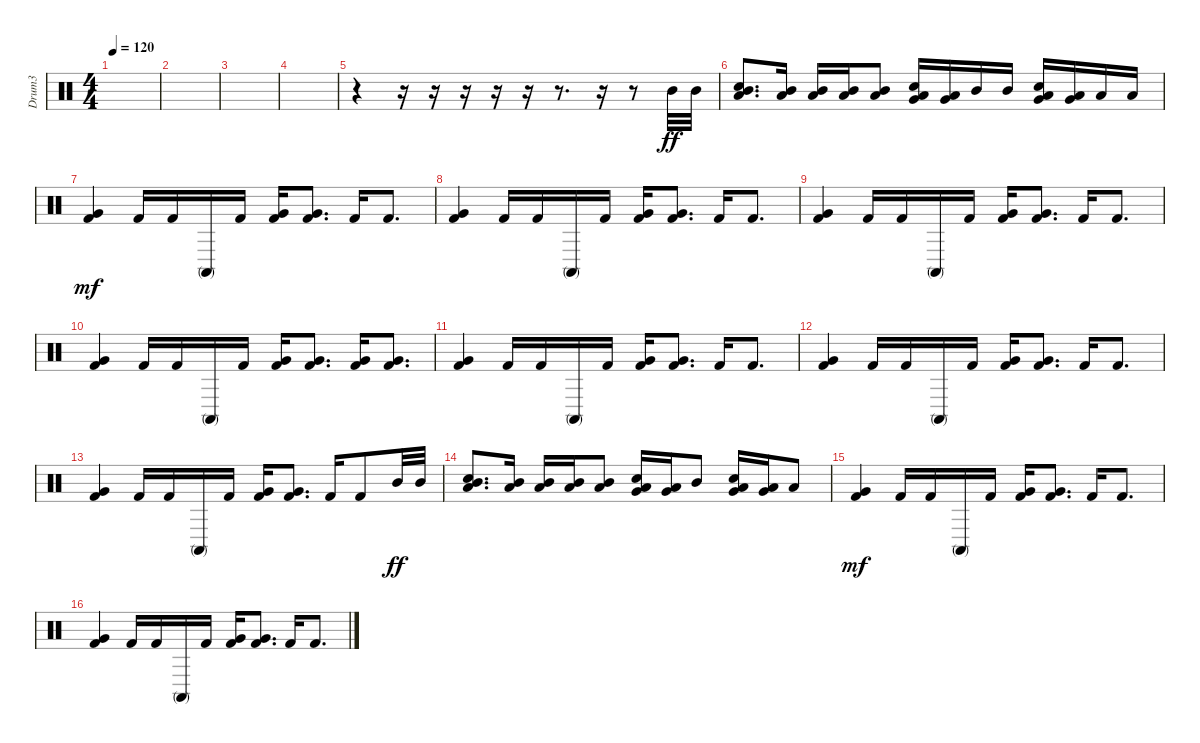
\track ("Drum3" "Drum3") {instrument percussion}
\staff {score}
\articulation defaults
\ts (4 4)
\tempo 120
\clef neutral
\ks c
|
|
|
|
r.4 r.16 r.16 r.16 r.16 r.16 r.8{d} r.16 r.8 "Mid Tom (hit)".32{dy ff} "Mid Tom (hit)".32 |
("Mid Tom (hit)" "Snare (hit) 2" "Low Tom (hit)").8{d} ("Mid Tom (hit)" "Low Tom (hit)").16 ("Mid Tom (hit)" "Low Tom (hit)").16 ("Mid Tom (hit)" "Low Tom (hit)").16 ("Low Tom (hit)" "Mid Tom (hit)").8 ("Low Tom (hit)" "Very Low Tom (hit)" "Snare (hit) 2").16 ("Low Tom (hit)" "Very Low Tom (hit)").16 "Mid Tom (hit)".16 "Mid Tom (hit)".16 ("Very Low Tom (hit)" "Low Floor Tom (hit)" "Snare (hit) 2").16 ("Very Low Tom (hit)" "Low Floor Tom (hit)").16 "Low Tom (hit)".16 "Low Tom (hit)".16 |
("Kick (hit) 2" "Very Low Tom (hit)").4{dy mf} "Kick (hit) 2".16 "Kick (hit) 2".16 "Conga high (mute)".16 "Kick (hit) 2".16 ("Kick (hit) 2" "Very Low Tom (hit)").16 ("Kick (hit) 2" "Very Low Tom (hit)").8{d} "Kick (hit) 2".16 "Kick (hit) 2".8{d} |
("Kick (hit) 2" "Very Low Tom (hit)").4 "Kick (hit) 2".16 "Kick (hit) 2".16 "Conga high (mute)".16 "Kick (hit) 2".16 ("Kick (hit) 2" "Very Low Tom (hit)").16 ("Kick (hit) 2" "Very Low Tom (hit)").8{d} "Kick (hit) 2".16 "Kick (hit) 2".8{d} |
("Kick (hit) 2" "Very Low Tom (hit)").4 "Kick (hit) 2".16 "Kick (hit) 2".16 "Conga high (mute)".16 "Kick (hit) 2".16 ("Kick (hit) 2" "Very Low Tom (hit)").16 ("Kick (hit) 2" "Very Low Tom (hit)").8{d} "Kick (hit) 2".16 "Kick (hit) 2".8{d} |
("Kick (hit) 2" "Very Low Tom (hit)").4 "Kick (hit) 2".16 "Kick (hit) 2".16 "Conga high (mute)".16 "Kick (hit) 2".16 ("Kick (hit) 2" "Very Low Tom (hit)").16 ("Kick (hit) 2" "Very Low Tom (hit)").8{d} ("Kick (hit) 2" "Very Low Tom (hit)").16 ("Kick (hit) 2" "Very Low Tom (hit)").8{d} |
("Kick (hit) 2" "Very Low Tom (hit)").4 "Kick (hit) 2".16 "Kick (hit) 2".16 "Conga high (mute)".16 "Kick (hit) 2".16 ("Kick (hit) 2" "Very Low Tom (hit)").16 ("Kick (hit) 2" "Very Low Tom (hit)").8{d} "Kick (hit) 2".16 "Kick (hit) 2".8{d} |
("Kick (hit) 2" "Very Low Tom (hit)").4 "Kick (hit) 2".16 "Kick (hit) 2".16 "Conga high (mute)".16 "Kick (hit) 2".16 ("Kick (hit) 2" "Very Low Tom (hit)").16 ("Kick (hit) 2" "Very Low Tom (hit)").8{d} "Kick (hit) 2".16 "Kick (hit) 2".8{d} |
("Kick (hit) 2" "Very Low Tom (hit)").4 "Kick (hit) 2".16 "Kick (hit) 2".16 "Conga high (mute)".16 "Kick (hit) 2".16 ("Kick (hit) 2" "Very Low Tom (hit)").16 ("Kick (hit) 2" "Very Low Tom (hit)").8{d} "Kick (hit) 2".16 "Kick (hit) 2".8 "Mid Tom (hit)".32{dy ff} "Mid Tom (hit)".32 |
("Mid Tom (hit)" "Snare (hit) 2" "Low Tom (hit)").8{d} ("Mid Tom (hit)" "Low Tom (hit)").16 ("Mid Tom (hit)" "Low Tom (hit)").16 ("Mid Tom (hit)" "Low Tom (hit)").16 ("Low Tom (hit)" "Mid Tom (hit)").8 ("Low Tom (hit)" "Very Low Tom (hit)" "Snare (hit) 2").16 ("Low Tom (hit)" "Very Low Tom (hit)").16 "Mid Tom (hit)".8 ("Very Low Tom (hit)" "Low Floor Tom (hit)" "Snare (hit) 2").16 ("Very Low Tom (hit)" "Low Floor Tom (hit)").16 "Low Tom (hit)".8 |
("Kick (hit) 2" "Very Low Tom (hit)").4{dy mf} "Kick (hit) 2".16 "Kick (hit) 2".16 "Conga high (mute)".16 "Kick (hit) 2".16 ("Kick (hit) 2" "Very Low Tom (hit)").16 ("Kick (hit) 2" "Very Low Tom (hit)").8{d} "Kick (hit) 2".16 "Kick (hit) 2".8{d} |
("Kick (hit) 2" "Very Low Tom (hit)").4 "Kick (hit) 2".16 "Kick (hit) 2".16 "Conga high (mute)".16 "Kick (hit) 2".16 ("Kick (hit) 2" "Very Low Tom (hit)").16 ("Kick (hit) 2" "Very Low Tom (hit)").8{d} "Kick (hit) 2".16 "Kick (hit) 2".8{d}
